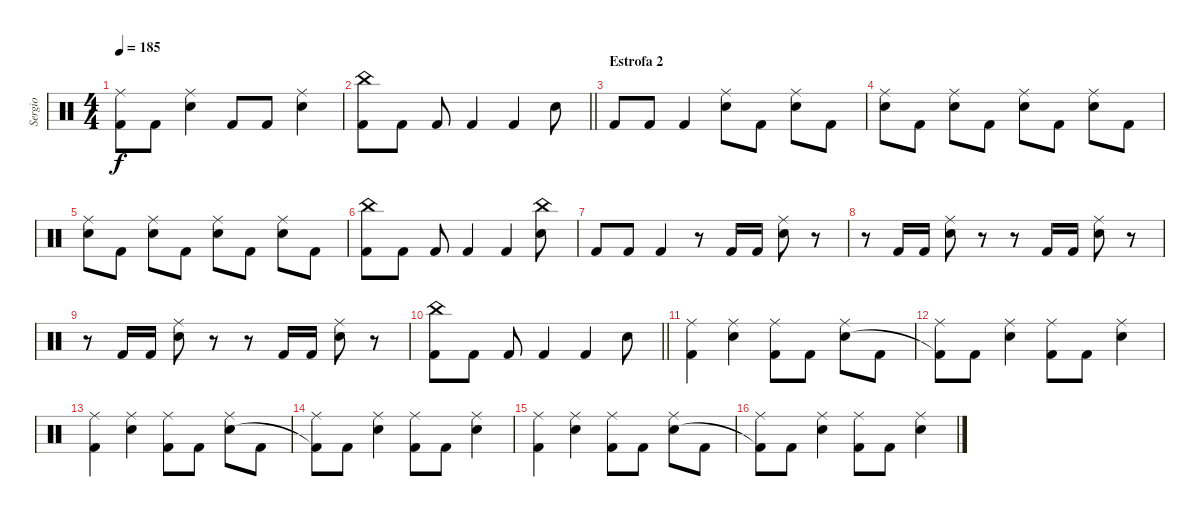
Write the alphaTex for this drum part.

\track ("Sergio" "Sergio") {instrument percussion}
\staff {score}
\articulation defaults
\ts (4 4)
\tempo 185
\clef neutral
\ks c
("Ride (middle)" "Kick (hit) 2"{t}).8{dy f} "Kick (hit) 2".8 ("Ride (middle)" "Electric Snare (hit)").4 "Kick (hit) 2".8 "Kick (hit) 2".8 ("Ride (middle)" "Electric Snare (hit)").4 |
\barLineRight lightlight
("China (hit)" "Kick (hit) 2").8 "Kick (hit) 2".8 "Kick (hit) 2".8 "Kick (hit) 2".4 "Kick (hit) 2".4 "Electric Snare (hit)".8 |
\section ("" "Estrofa 2")
"Kick (hit) 2".8 "Kick (hit) 2".8 "Kick (hit) 2".4 ("Ride (middle)" "Electric Snare (hit)").8 "Kick (hit) 2".8 ("Ride (middle)" "Electric Snare (hit)").8 "Kick (hit) 2".8 |
("Ride (middle)" "Electric Snare (hit)").8 "Kick (hit) 2".8 ("Ride (middle)" "Electric Snare (hit)").8 "Kick (hit) 2".8 ("Ride (middle)" "Electric Snare (hit)").8 "Kick (hit) 2".8 ("Ride (middle)" "Electric Snare (hit)").8 "Kick (hit) 2".8 |
("Ride (middle)" "Electric Snare (hit)").8 "Kick (hit) 2".8 ("Ride (middle)" "Electric Snare (hit)").8 "Kick (hit) 2".8 ("Ride (middle)" "Electric Snare (hit)").8 "Kick (hit) 2".8 ("Ride (middle)" "Electric Snare (hit)").8 "Kick (hit) 2".8 |
("China (hit)" "Kick (hit) 2").8 "Kick (hit) 2".8 "Kick (hit) 2".8 "Kick (hit) 2".4 "Kick (hit) 2".4 ("China (hit)" "Electric Snare (hit)").8 |
"Kick (hit) 2".8 "Kick (hit) 2".8 "Kick (hit) 2".4 r.8 "Kick (hit) 2".16 "Kick (hit) 2".16 ("Ride (middle)" "Electric Snare (hit)").8 r.8 |
r.8 "Kick (hit) 2".16 "Kick (hit) 2".16 ("Ride (middle)" "Electric Snare (hit)").8 r.8 r.8 "Kick (hit) 2".16 "Kick (hit) 2".16 ("Ride (middle)" "Electric Snare (hit)").8 r.8 |
r.8 "Kick (hit) 2".16 "Kick (hit) 2".16 ("Ride (middle)" "Electric Snare (hit)").8 r.8 r.8 "Kick (hit) 2".16 "Kick (hit) 2".16 ("Ride (middle)" "Electric Snare (hit)").8 r.8 |
\barLineRight lightlight
("China (hit)" "Kick (hit) 2").8 "Kick (hit) 2".8 "Kick (hit) 2".8 "Kick (hit) 2".4 "Kick (hit) 2".4 "Electric Snare (hit)".8 |
("Ride (middle)" "Kick (hit) 2").4 ("Ride (middle)" "Electric Snare (hit)").4 ("Ride (middle)" "Kick (hit) 2").8 "Kick (hit) 2".8 ("Ride (middle)" "Electric Snare (hit)").8 "Kick (hit) 2".8 |
("Ride (middle)" "Kick (hit) 2"{t}).8 "Kick (hit) 2".8 ("Ride (middle)" "Electric Snare (hit)").4 ("Ride (middle)" "Kick (hit) 2").8 "Kick (hit) 2".8 ("Ride (middle)" "Electric Snare (hit)").4 |
("Ride (middle)" "Kick (hit) 2").4 ("Ride (middle)" "Electric Snare (hit)").4 ("Ride (middle)" "Kick (hit) 2").8 "Kick (hit) 2".8 ("Ride (middle)" "Electric Snare (hit)").8 "Kick (hit) 2".8 |
("Ride (middle)" "Kick (hit) 2"{t}).8 "Kick (hit) 2".8 ("Ride (middle)" "Electric Snare (hit)").4 ("Ride (middle)" "Kick (hit) 2").8 "Kick (hit) 2".8 ("Ride (middle)" "Electric Snare (hit)").4 |
("Ride (middle)" "Kick (hit) 2").4 ("Ride (middle)" "Electric Snare (hit)").4 ("Ride (middle)" "Kick (hit) 2").8 "Kick (hit) 2".8 ("Ride (middle)" "Electric Snare (hit)").8 "Kick (hit) 2".8 |
("Ride (middle)" "Kick (hit) 2"{t}).8 "Kick (hit) 2".8 ("Ride (middle)" "Electric Snare (hit)").4 ("Ride (middle)" "Kick (hit) 2").8 "Kick (hit) 2".8 ("Ride (middle)" "Electric Snare (hit)").4
